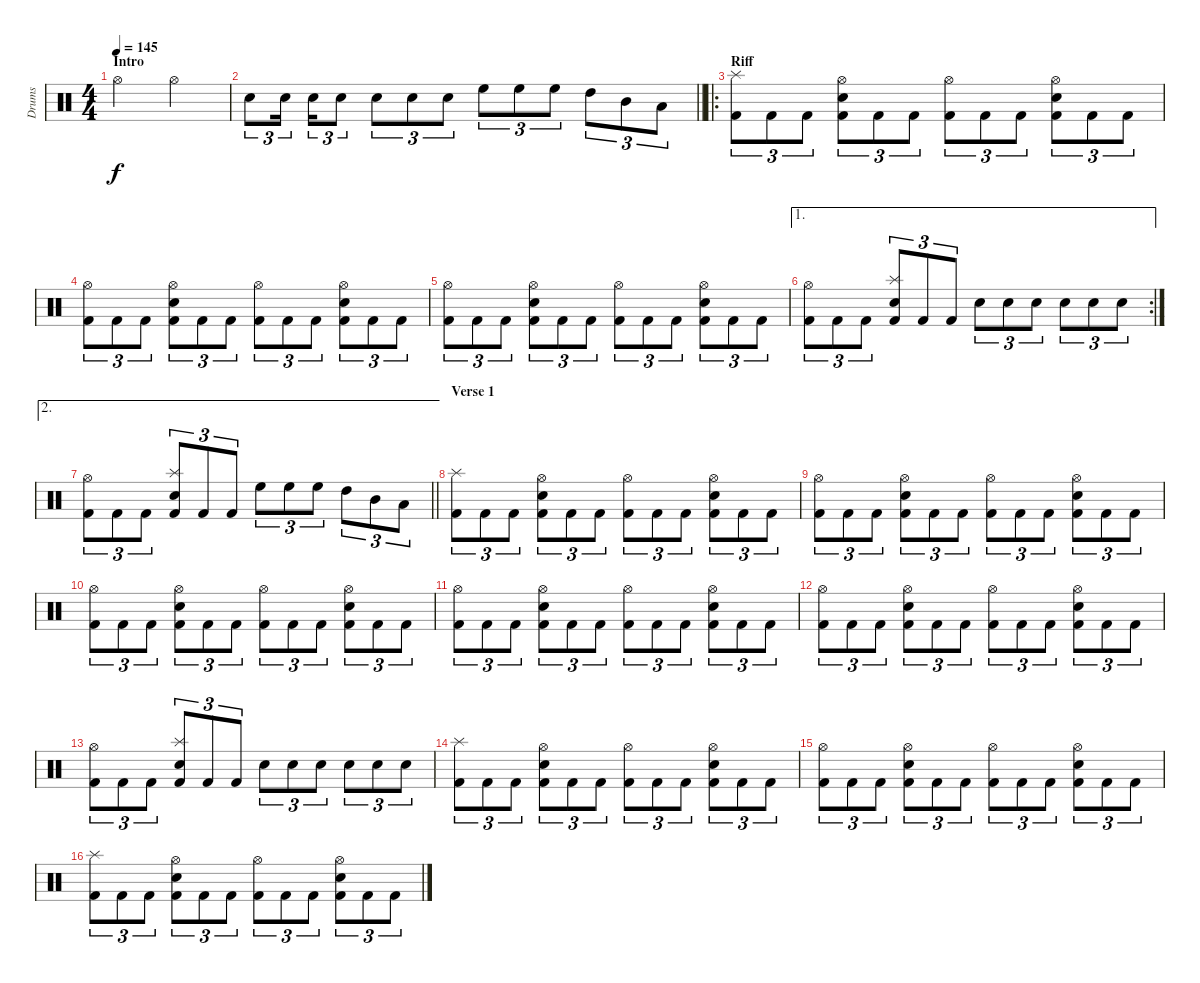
\track ("Drums" "Drums") {instrument percussion}
\staff {score}
\articulation defaults
\ts (4 4)
\section ("" "Intro")
\tempo 145
\clef neutral
\ks c "Hi-Hat (open)".2{dy f} "Hi-Hat (open)".2
|
\barLineRight lightlight "Electric Snare (hit)".8{tu (3 2)} "Electric Snare (hit)".16{tu (3 2)} "Electric Snare (hit)".16{tu (3 2)} "Electric Snare (hit)".8{tu (3 2)} "Electric Snare (hit)".8{tu (3 2)} "Electric Snare (hit)".8{tu (3 2)} "Electric Snare (hit)".8{tu (3 2)} "High Floor Tom (hit)".8{tu (3 2)} "High Floor Tom (hit)".8{tu (3 2)} "High Floor Tom (hit)".8{tu (3 2)} "High Tom (hit)".8{tu (3 2)} "Mid Tom (hit)".8{tu (3 2)} "Low Tom (hit)".8{tu (3 2)}
|
\ro
\section ("" "Riff")
("Splash (hit)" "Kick (hit) 2").8{tu (3 2)} "Kick (hit) 2".8{tu (3 2)} "Kick (hit) 2".8{tu (3 2)} ("Hi-Hat (open)" "Electric Snare (hit)" "Kick (hit) 2").8{tu (3 2)} "Kick (hit) 2".8{tu (3 2)} "Kick (hit) 2".8{tu (3 2)} ("Hi-Hat (open)" "Kick (hit) 2").8{tu (3 2)} "Kick (hit) 2".8{tu (3 2)} "Kick (hit) 2".8{tu (3 2)} ("Hi-Hat (open)" "Electric Snare (hit)" "Kick (hit) 2").8{tu (3 2)} "Kick (hit) 2".8{tu (3 2)} "Kick (hit) 2".8{tu (3 2)} |
("Hi-Hat (open)" "Kick (hit) 2").8{tu (3 2)} "Kick (hit) 2".8{tu (3 2)} "Kick (hit) 2".8{tu (3 2)} ("Hi-Hat (open)" "Electric Snare (hit)" "Kick (hit) 2").8{tu (3 2)} "Kick (hit) 2".8{tu (3 2)} "Kick (hit) 2".8{tu (3 2)} ("Hi-Hat (open)" "Kick (hit) 2").8{tu (3 2)} "Kick (hit) 2".8{tu (3 2)} "Kick (hit) 2".8{tu (3 2)} ("Hi-Hat (open)" "Electric Snare (hit)" "Kick (hit) 2").8{tu (3 2)} "Kick (hit) 2".8{tu (3 2)} "Kick (hit) 2".8{tu (3 2)} |
("Hi-Hat (open)" "Kick (hit) 2").8{tu (3 2)} "Kick (hit) 2".8{tu (3 2)} "Kick (hit) 2".8{tu (3 2)} ("Hi-Hat (open)" "Electric Snare (hit)" "Kick (hit) 2").8{tu (3 2)} "Kick (hit) 2".8{tu (3 2)} "Kick (hit) 2".8{tu (3 2)} ("Hi-Hat (open)" "Kick (hit) 2").8{tu (3 2)} "Kick (hit) 2".8{tu (3 2)} "Kick (hit) 2".8{tu (3 2)} ("Hi-Hat (open)" "Electric Snare (hit)" "Kick (hit) 2").8{tu (3 2)} "Kick (hit) 2".8{tu (3 2)} "Kick (hit) 2".8{tu (3 2)} |
\ae 1
\rc 2
("Hi-Hat (open)" "Kick (hit) 2").8{tu (3 2)} "Kick (hit) 2".8{tu (3 2)} "Kick (hit) 2".8{tu (3 2)} ("Splash (hit)" "Electric Snare (hit)" "Kick (hit) 2").8{tu (3 2)} "Kick (hit) 2".8{tu (3 2)} "Kick (hit) 2".8{tu (3 2)} "Electric Snare (hit)".8{tu (3 2)} "Electric Snare (hit)".8{tu (3 2)} "Electric Snare (hit)".8{tu (3 2)} "Electric Snare (hit)".8{tu (3 2)} "Electric Snare (hit)".8{tu (3 2)} "Electric Snare (hit)".8{tu (3 2)} |
\ae 2
\barLineRight lightlight
("Hi-Hat (open)" "Kick (hit) 2").8{tu (3 2)} "Kick (hit) 2".8{tu (3 2)} "Kick (hit) 2".8{tu (3 2)} ("Splash (hit)" "Electric Snare (hit)" "Kick (hit) 2").8{tu (3 2)} "Kick (hit) 2".8{tu (3 2)} "Kick (hit) 2".8{tu (3 2)} "High Floor Tom (hit)".8{tu (3 2)} "High Floor Tom (hit)".8{tu (3 2)} "High Floor Tom (hit)".8{tu (3 2)} "High Tom (hit)".8{tu (3 2)} "Mid Tom (hit)".8{tu (3 2)} "Low Tom (hit)".8{tu (3 2)} |
\section ("" "Verse 1")
("Splash (hit)" "Kick (hit) 2").8{tu (3 2)} "Kick (hit) 2".8{tu (3 2)} "Kick (hit) 2".8{tu (3 2)} ("Hi-Hat (open)" "Electric Snare (hit)" "Kick (hit) 2").8{tu (3 2)} "Kick (hit) 2".8{tu (3 2)} "Kick (hit) 2".8{tu (3 2)} ("Hi-Hat (open)" "Kick (hit) 2").8{tu (3 2)} "Kick (hit) 2".8{tu (3 2)} "Kick (hit) 2".8{tu (3 2)} ("Hi-Hat (open)" "Electric Snare (hit)" "Kick (hit) 2").8{tu (3 2)} "Kick (hit) 2".8{tu (3 2)} "Kick (hit) 2".8{tu (3 2)} |
("Hi-Hat (open)" "Kick (hit) 2").8{tu (3 2)} "Kick (hit) 2".8{tu (3 2)} "Kick (hit) 2".8{tu (3 2)} ("Hi-Hat (open)" "Electric Snare (hit)" "Kick (hit) 2").8{tu (3 2)} "Kick (hit) 2".8{tu (3 2)} "Kick (hit) 2".8{tu (3 2)} ("Hi-Hat (open)" "Kick (hit) 2").8{tu (3 2)} "Kick (hit) 2".8{tu (3 2)} "Kick (hit) 2".8{tu (3 2)} ("Hi-Hat (open)" "Electric Snare (hit)" "Kick (hit) 2").8{tu (3 2)} "Kick (hit) 2".8{tu (3 2)} "Kick (hit) 2".8{tu (3 2)} |
("Hi-Hat (open)" "Kick (hit) 2").8{tu (3 2)} "Kick (hit) 2".8{tu (3 2)} "Kick (hit) 2".8{tu (3 2)} ("Hi-Hat (open)" "Electric Snare (hit)" "Kick (hit) 2").8{tu (3 2)} "Kick (hit) 2".8{tu (3 2)} "Kick (hit) 2".8{tu (3 2)} ("Hi-Hat (open)" "Kick (hit) 2").8{tu (3 2)} "Kick (hit) 2".8{tu (3 2)} "Kick (hit) 2".8{tu (3 2)} ("Hi-Hat (open)" "Electric Snare (hit)" "Kick (hit) 2").8{tu (3 2)} "Kick (hit) 2".8{tu (3 2)} "Kick (hit) 2".8{tu (3 2)} |
("Hi-Hat (open)" "Kick (hit) 2").8{tu (3 2)} "Kick (hit) 2".8{tu (3 2)} "Kick (hit) 2".8{tu (3 2)} ("Hi-Hat (open)" "Electric Snare (hit)" "Kick (hit) 2").8{tu (3 2)} "Kick (hit) 2".8{tu (3 2)} "Kick (hit) 2".8{tu (3 2)} ("Hi-Hat (open)" "Kick (hit) 2").8{tu (3 2)} "Kick (hit) 2".8{tu (3 2)} "Kick (hit) 2".8{tu (3 2)} ("Hi-Hat (open)" "Electric Snare (hit)" "Kick (hit) 2").8{tu (3 2)} "Kick (hit) 2".8{tu (3 2)} "Kick (hit) 2".8{tu (3 2)} |
("Hi-Hat (open)" "Kick (hit) 2").8{tu (3 2)} "Kick (hit) 2".8{tu (3 2)} "Kick (hit) 2".8{tu (3 2)} ("Hi-Hat (open)" "Electric Snare (hit)" "Kick (hit) 2").8{tu (3 2)} "Kick (hit) 2".8{tu (3 2)} "Kick (hit) 2".8{tu (3 2)} ("Hi-Hat (open)" "Kick (hit) 2").8{tu (3 2)} "Kick (hit) 2".8{tu (3 2)} "Kick (hit) 2".8{tu (3 2)} ("Hi-Hat (open)" "Electric Snare (hit)" "Kick (hit) 2").8{tu (3 2)} "Kick (hit) 2".8{tu (3 2)} "Kick (hit) 2".8{tu (3 2)} |
("Hi-Hat (open)" "Kick (hit) 2").8{tu (3 2)} "Kick (hit) 2".8{tu (3 2)} "Kick (hit) 2".8{tu (3 2)} ("Splash (hit)" "Electric Snare (hit)" "Kick (hit) 2").8{tu (3 2)} "Kick (hit) 2".8{tu (3 2)} "Kick (hit) 2".8{tu (3 2)} "Electric Snare (hit)".8{tu (3 2)} "Electric Snare (hit)".8{tu (3 2)} "Electric Snare (hit)".8{tu (3 2)} "Electric Snare (hit)".8{tu (3 2)} "Electric Snare (hit)".8{tu (3 2)} "Electric Snare (hit)".8{tu (3 2)} |
("Splash (hit)" "Kick (hit) 2").8{tu (3 2)} "Kick (hit) 2".8{tu (3 2)} "Kick (hit) 2".8{tu (3 2)} ("Hi-Hat (open)" "Electric Snare (hit)" "Kick (hit) 2").8{tu (3 2)} "Kick (hit) 2".8{tu (3 2)} "Kick (hit) 2".8{tu (3 2)} ("Hi-Hat (open)" "Kick (hit) 2").8{tu (3 2)} "Kick (hit) 2".8{tu (3 2)} "Kick (hit) 2".8{tu (3 2)} ("Hi-Hat (open)" "Electric Snare (hit)" "Kick (hit) 2").8{tu (3 2)} "Kick (hit) 2".8{tu (3 2)} "Kick (hit) 2".8{tu (3 2)} |
("Hi-Hat (open)" "Kick (hit) 2").8{tu (3 2)} "Kick (hit) 2".8{tu (3 2)} "Kick (hit) 2".8{tu (3 2)} ("Hi-Hat (open)" "Electric Snare (hit)" "Kick (hit) 2").8{tu (3 2)} "Kick (hit) 2".8{tu (3 2)} "Kick (hit) 2".8{tu (3 2)} ("Hi-Hat (open)" "Kick (hit) 2").8{tu (3 2)} "Kick (hit) 2".8{tu (3 2)} "Kick (hit) 2".8{tu (3 2)} ("Hi-Hat (open)" "Electric Snare (hit)" "Kick (hit) 2").8{tu (3 2)} "Kick (hit) 2".8{tu (3 2)} "Kick (hit) 2".8{tu (3 2)} |
("Splash (hit)" "Kick (hit) 2").8{tu (3 2)} "Kick (hit) 2".8{tu (3 2)} "Kick (hit) 2".8{tu (3 2)} ("Hi-Hat (open)" "Electric Snare (hit)" "Kick (hit) 2").8{tu (3 2)} "Kick (hit) 2".8{tu (3 2)} "Kick (hit) 2".8{tu (3 2)} ("Hi-Hat (open)" "Kick (hit) 2").8{tu (3 2)} "Kick (hit) 2".8{tu (3 2)} "Kick (hit) 2".8{tu (3 2)} ("Hi-Hat (open)" "Electric Snare (hit)" "Kick (hit) 2").8{tu (3 2)} "Kick (hit) 2".8{tu (3 2)} "Kick (hit) 2".8{tu (3 2)}
